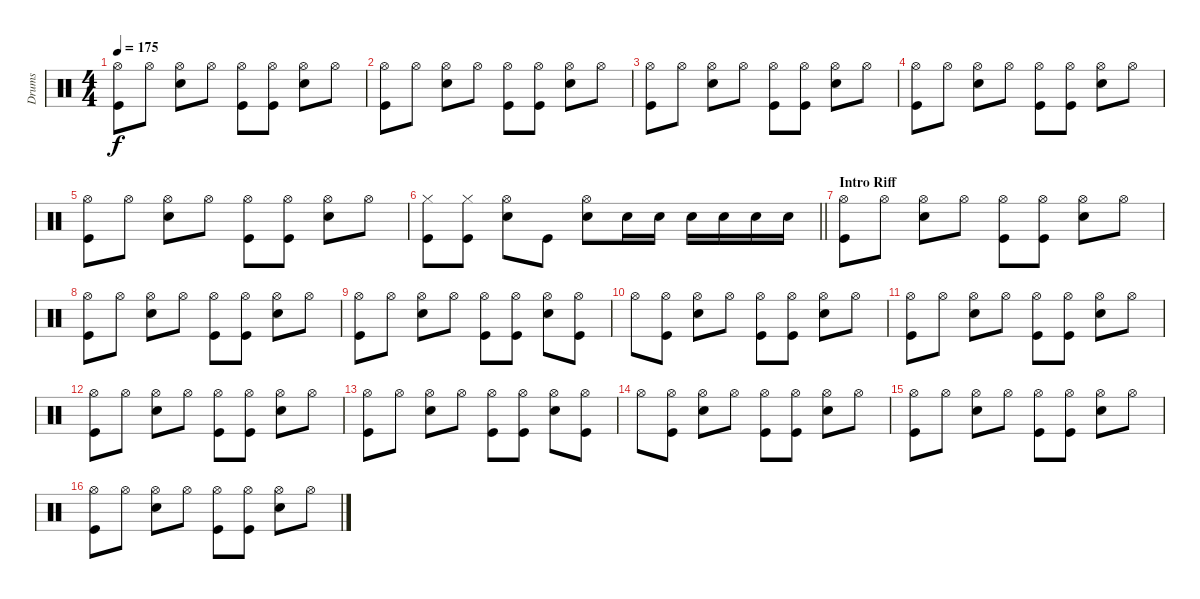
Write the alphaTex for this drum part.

\track ("Drums" "Drums") {instrument percussion}
\staff {score}
\articulation defaults
\ts (4 4)
\tempo 175
\clef neutral
\ks c
("Hi-Hat (open)" "Kick (hit)").8{dy f} "Hi-Hat (open)".8 ("Hi-Hat (open)" "Snare (hit) 2").8 "Hi-Hat (open)".8 ("Hi-Hat (open)" "Kick (hit)").8 ("Hi-Hat (open)" "Kick (hit)").8 ("Hi-Hat (open)" "Snare (hit) 2").8 "Hi-Hat (open)".8 |
("Hi-Hat (open)" "Kick (hit)").8 "Hi-Hat (open)".8 ("Hi-Hat (open)" "Snare (hit) 2").8 "Hi-Hat (open)".8 ("Hi-Hat (open)" "Kick (hit)").8 ("Hi-Hat (open)" "Kick (hit)").8 ("Hi-Hat (open)" "Snare (hit) 2").8 "Hi-Hat (open)".8 |
("Hi-Hat (open)" "Kick (hit)").8 "Hi-Hat (open)".8 ("Hi-Hat (open)" "Snare (hit) 2").8 "Hi-Hat (open)".8 ("Hi-Hat (open)" "Kick (hit)").8 ("Hi-Hat (open)" "Kick (hit)").8 ("Hi-Hat (open)" "Snare (hit) 2").8 "Hi-Hat (open)".8 |
("Hi-Hat (open)" "Kick (hit)").8 "Hi-Hat (open)".8 ("Hi-Hat (open)" "Snare (hit) 2").8 "Hi-Hat (open)".8 ("Hi-Hat (open)" "Kick (hit)").8 ("Hi-Hat (open)" "Kick (hit)").8 ("Hi-Hat (open)" "Snare (hit) 2").8 "Hi-Hat (open)".8 |
("Hi-Hat (open)" "Kick (hit)").8 "Hi-Hat (open)".8 ("Hi-Hat (open)" "Snare (hit) 2").8 "Hi-Hat (open)".8 ("Hi-Hat (open)" "Kick (hit)").8 ("Hi-Hat (open)" "Kick (hit)").8 ("Hi-Hat (open)" "Snare (hit) 2").8 "Hi-Hat (open)".8 |
\barLineRight lightlight
("Hi-Hat (closed)" "Kick (hit)").8 ("Hi-Hat (closed)" "Kick (hit)").8 ("Hi-Hat (open)" "Snare (hit) 2").8 "Kick (hit)".8 ("Hi-Hat (open)" "Snare (hit) 2").8 "Snare (hit) 2".16 "Snare (hit) 2".16 "Snare (hit) 2".16 "Snare (hit) 2".16 "Snare (hit) 2".16 "Snare (hit) 2".16 |
\section ("" "Intro Riff")
("Hi-Hat (open)" "Kick (hit)").8 "Hi-Hat (open)".8 ("Hi-Hat (open)" "Snare (hit) 2").8 "Hi-Hat (open)".8 ("Hi-Hat (open)" "Kick (hit)").8 ("Hi-Hat (open)" "Kick (hit)").8 ("Hi-Hat (open)" "Snare (hit) 2").8 "Hi-Hat (open)".8 |
("Hi-Hat (open)" "Kick (hit)").8 "Hi-Hat (open)".8 ("Hi-Hat (open)" "Snare (hit) 2").8 "Hi-Hat (open)".8 ("Hi-Hat (open)" "Kick (hit)").8 ("Hi-Hat (open)" "Kick (hit)").8 ("Hi-Hat (open)" "Snare (hit) 2").8 "Hi-Hat (open)".8 |
("Hi-Hat (open)" "Kick (hit)").8 "Hi-Hat (open)".8 ("Hi-Hat (open)" "Snare (hit) 2").8 "Hi-Hat (open)".8 ("Hi-Hat (open)" "Kick (hit)").8 ("Hi-Hat (open)" "Kick (hit)").8 ("Hi-Hat (open)" "Snare (hit) 2").8 ("Hi-Hat (open)" "Kick (hit)").8 |
"Hi-Hat (open)".8 ("Hi-Hat (open)" "Kick (hit)").8 ("Hi-Hat (open)" "Snare (hit) 2").8 "Hi-Hat (open)".8 ("Hi-Hat (open)" "Kick (hit)").8 ("Hi-Hat (open)" "Kick (hit)").8 ("Hi-Hat (open)" "Snare (hit) 2").8 "Hi-Hat (open)".8 |
("Hi-Hat (open)" "Kick (hit)").8 "Hi-Hat (open)".8 ("Hi-Hat (open)" "Snare (hit) 2").8 "Hi-Hat (open)".8 ("Hi-Hat (open)" "Kick (hit)").8 ("Hi-Hat (open)" "Kick (hit)").8 ("Hi-Hat (open)" "Snare (hit) 2").8 "Hi-Hat (open)".8 |
("Hi-Hat (open)" "Kick (hit)").8 "Hi-Hat (open)".8 ("Hi-Hat (open)" "Snare (hit) 2").8 "Hi-Hat (open)".8 ("Hi-Hat (open)" "Kick (hit)").8 ("Hi-Hat (open)" "Kick (hit)").8 ("Hi-Hat (open)" "Snare (hit) 2").8 "Hi-Hat (open)".8 |
("Hi-Hat (open)" "Kick (hit)").8 "Hi-Hat (open)".8 ("Hi-Hat (open)" "Snare (hit) 2").8 "Hi-Hat (open)".8 ("Hi-Hat (open)" "Kick (hit)").8 ("Hi-Hat (open)" "Kick (hit)").8 ("Hi-Hat (open)" "Snare (hit) 2").8 ("Hi-Hat (open)" "Kick (hit)").8 |
"Hi-Hat (open)".8 ("Hi-Hat (open)" "Kick (hit)").8 ("Hi-Hat (open)" "Snare (hit) 2").8 "Hi-Hat (open)".8 ("Hi-Hat (open)" "Kick (hit)").8 ("Hi-Hat (open)" "Kick (hit)").8 ("Hi-Hat (open)" "Snare (hit) 2").8 "Hi-Hat (open)".8 |
("Hi-Hat (open)" "Kick (hit)").8 "Hi-Hat (open)".8 ("Hi-Hat (open)" "Snare (hit) 2").8 "Hi-Hat (open)".8 ("Hi-Hat (open)" "Kick (hit)").8 ("Hi-Hat (open)" "Kick (hit)").8 ("Hi-Hat (open)" "Snare (hit) 2").8 "Hi-Hat (open)".8 |
("Hi-Hat (open)" "Kick (hit)").8 "Hi-Hat (open)".8 ("Hi-Hat (open)" "Snare (hit) 2").8 "Hi-Hat (open)".8 ("Hi-Hat (open)" "Kick (hit)").8 ("Hi-Hat (open)" "Kick (hit)").8 ("Hi-Hat (open)" "Snare (hit) 2").8 "Hi-Hat (open)".8
